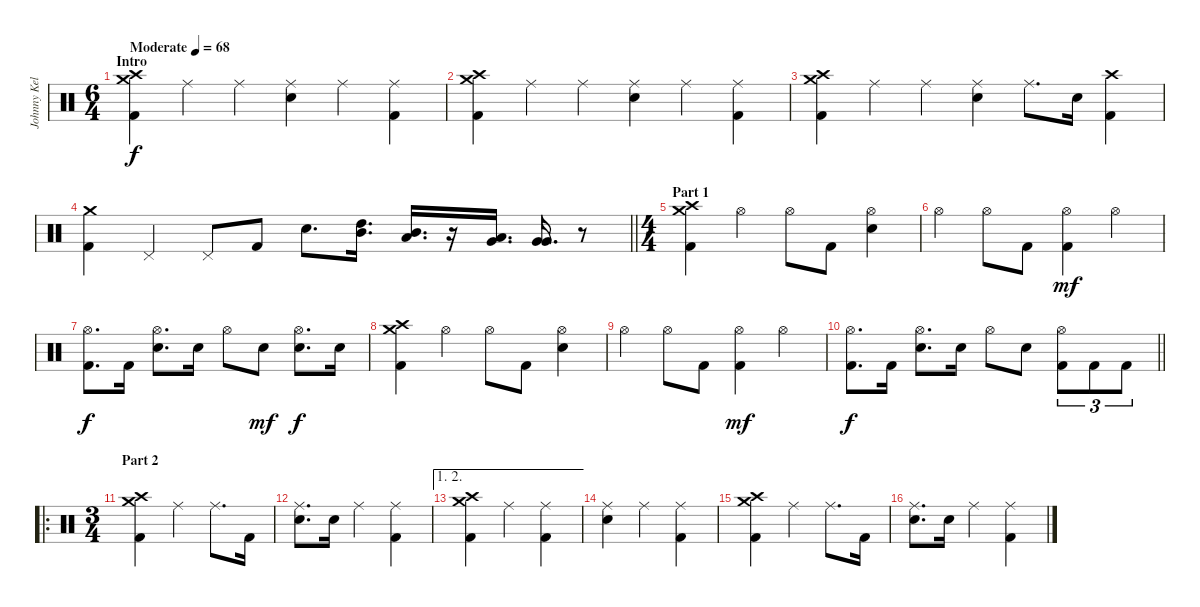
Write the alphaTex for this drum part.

\track ("Johnny Kelly" "Johnny Kel") {instrument percussion}
\staff {score}
\articulation defaults
\ts (6 4)
\section ("" "Intro")
\tempo (68 "Moderate")
\clef neutral
\ks c
("Crash high (hit)" "Crash medium (hit)" "Kick (hit) 2").4{dy f} "Ride (middle)".4 "Ride (middle)".4 ("Ride (middle)" "Electric Snare (hit)").4 "Ride (middle)".4 ("Ride (middle)" "Kick (hit) 2").4 |
("Crash high (hit)" "Crash medium (hit)" "Kick (hit) 2").4 "Ride (middle)".4 "Ride (middle)".4 ("Ride (middle)" "Electric Snare (hit)").4 "Ride (middle)".4 ("Ride (middle)" "Kick (hit) 2").4 |
("Crash high (hit)" "Crash medium (hit)" "Kick (hit) 2").4 "Ride (middle)".4 "Ride (middle)".4 ("Ride (middle)" "Electric Snare (hit)").4 "Ride (middle)".8{d} "Electric Snare (hit)".16 ("Crash high (hit)" "Kick (hit) 2").4 |
\barLineRight lightlight
("Crash medium (hit)" "Kick (hit) 2").4 "Pedal Hi-Hat (hit)".4 "Pedal Hi-Hat (hit)".8 "Kick (hit) 2".8 "Electric Snare (hit)".8{d} ("High Tom (hit)" "Mid Tom (hit)").16{d} ("Mid Tom (hit)" "Low Tom (hit)").16{d} r.16 ("Low Tom (hit)" "Very Low Tom (hit)").16{d} ("Very Low Tom (hit)" "Very Low Tom (hit)").16{d} r.8 |
\ts (4 4)
\section ("" "Part 1")
("Crash high (hit)" "Crash medium (hit)" "Kick (hit) 2").4 "Hi-Hat (open)".4 "Hi-Hat (open)".8 "Kick (hit) 2".8 ("Hi-Hat (open)" "Electric Snare (hit)").4 |
"Hi-Hat (open)".4 "Hi-Hat (open)".8 "Kick (hit) 2".8 ("Hi-Hat (open)" "Kick (hit) 2").4{dy mf} "Hi-Hat (open)".4 |
("Hi-Hat (open)" "Kick (hit) 2").8{d dy f} "Kick (hit) 2".16 ("Hi-Hat (open)" "Electric Snare (hit)").8{d} "Electric Snare (hit)".16 "Hi-Hat (open)".8 "Electric Snare (hit)".8{dy mf} ("Hi-Hat (open)" "Electric Snare (hit)").8{d dy f} "Electric Snare (hit)".16 |
("Crash high (hit)" "Crash medium (hit)" "Kick (hit) 2").4 "Hi-Hat (open)".4 "Hi-Hat (open)".8 "Kick (hit) 2".8 ("Hi-Hat (open)" "Electric Snare (hit)").4 |
"Hi-Hat (open)".4 "Hi-Hat (open)".8 "Kick (hit) 2".8 ("Hi-Hat (open)" "Kick (hit) 2").4{dy mf} "Hi-Hat (open)".4 |
\barLineRight lightlight
("Hi-Hat (open)" "Kick (hit) 2").8{d dy f} "Kick (hit) 2".16 ("Hi-Hat (open)" "Electric Snare (hit)").8{d} "Electric Snare (hit)".16 "Hi-Hat (open)".8 "Electric Snare (hit)".8 ("Hi-Hat (open)" "Kick (hit) 2").8{tu (3 2)} "Kick (hit) 2".8{tu (3 2)} "Kick (hit) 2".8{tu (3 2)} |
\ro
\ts (3 4)
\section ("" "Part 2")
("Crash high (hit)" "Crash medium (hit)" "Kick (hit) 2").4 "Ride (middle)".4 "Ride (middle)".8{d} "Kick (hit) 2".16 |
("Ride (middle)" "Electric Snare (hit)").8{d} "Electric Snare (hit)".16 "Ride (middle)".4 ("Ride (middle)" "Kick (hit) 2").4 |
\ae (1 2)
("Crash high (hit)" "Crash medium (hit)" "Kick (hit) 2").4 "Ride (middle)".4 ("Ride (middle)" "Kick (hit) 2").4 |
("Ride (middle)" "Electric Snare (hit)").4 "Ride (middle)".4 ("Ride (middle)" "Kick (hit) 2").4 |
("Crash high (hit)" "Crash medium (hit)" "Kick (hit) 2").4 "Ride (middle)".4 "Ride (middle)".8{d} "Kick (hit) 2".16 |
("Ride (middle)" "Electric Snare (hit)").8{d} "Electric Snare (hit)".16 "Ride (middle)".4 ("Ride (middle)" "Kick (hit) 2").4
